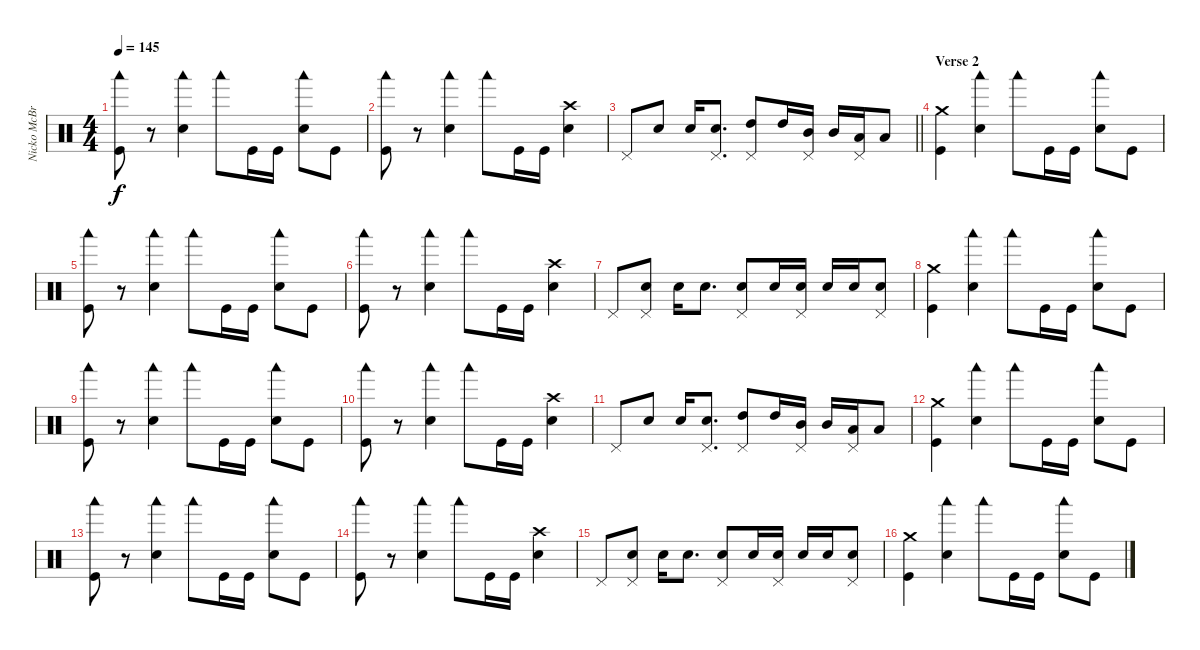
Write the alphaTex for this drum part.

\track ("Nicko McBrain" "Nicko McBr") {instrument percussion}
\staff {score}
\articulation defaults
\ts (4 4)
\tempo 145
\clef neutral
\ks c
("Woodblock low (hit)" "Kick (hit)").8{dy f} r.8 ("Woodblock low (hit)" "Electric Snare (hit)").4 "Woodblock low (hit)".8 "Kick (hit)".16 "Kick (hit)".16 ("Woodblock low (hit)" "Electric Snare (hit)").8 "Kick (hit)".8 |
("Woodblock low (hit)" "Kick (hit)").8 r.8 ("Woodblock low (hit)" "Electric Snare (hit)").4 "Woodblock low (hit)".8 "Kick (hit)".16 "Kick (hit)".16 ("Crash high (hit)" "Electric Snare (hit)").4 |
\barLineRight lightlight "Pedal Hi-Hat (hit)".8 "Electric Snare (hit)".8 "Electric Snare (hit)".16
("Pedal Hi-Hat (hit)" "Electric Snare (hit)").8{d} ("Pedal Hi-Hat (hit)" "High Tom (hit)").8 "High Tom (hit)".16 ("Pedal Hi-Hat (hit)" "Mid Tom (hit)").16 "Mid Tom (hit)".16 ("Pedal Hi-Hat (hit)" "Low Tom (hit)").16 "Low Tom (hit)".8 |
\section ("" "Verse 2")
("Crash medium (hit)" "Kick (hit)").4 ("Woodblock low (hit)" "Electric Snare (hit)").4 "Woodblock low (hit)".8 "Kick (hit)".16 "Kick (hit)".16 ("Woodblock low (hit)" "Electric Snare (hit)").8 "Kick (hit)".8 |
("Woodblock low (hit)" "Kick (hit)").8 r.8 ("Woodblock low (hit)" "Electric Snare (hit)").4 "Woodblock low (hit)".8 "Kick (hit)".16 "Kick (hit)".16 ("Woodblock low (hit)" "Electric Snare (hit)").8 "Kick (hit)".8 |
("Woodblock low (hit)" "Kick (hit)").8 r.8 ("Woodblock low (hit)" "Electric Snare (hit)").4 "Woodblock low (hit)".8 "Kick (hit)".16 "Kick (hit)".16 ("Crash high (hit)" "Electric Snare (hit)").4 |
"Pedal Hi-Hat (hit)".8 ("Pedal Hi-Hat (hit)" "Electric Snare (hit)").8 "Electric Snare (hit)".16 "Electric Snare (hit)".8{d} ("Pedal Hi-Hat (hit)" "Electric Snare (hit)").8 "Electric Snare (hit)".16 ("Pedal Hi-Hat (hit)" "Electric Snare (hit)").16 "Electric Snare (hit)".16 "Electric Snare (hit)".16 ("Pedal Hi-Hat (hit)" "Electric Snare (hit)").8 |
("Crash medium (hit)" "Kick (hit)").4 ("Woodblock low (hit)" "Electric Snare (hit)").4 "Woodblock low (hit)".8 "Kick (hit)".16 "Kick (hit)".16 ("Woodblock low (hit)" "Electric Snare (hit)").8 "Kick (hit)".8 |
("Woodblock low (hit)" "Kick (hit)").8 r.8 ("Woodblock low (hit)" "Electric Snare (hit)").4 "Woodblock low (hit)".8 "Kick (hit)".16 "Kick (hit)".16 ("Woodblock low (hit)" "Electric Snare (hit)").8 "Kick (hit)".8 |
("Woodblock low (hit)" "Kick (hit)").8 r.8 ("Woodblock low (hit)" "Electric Snare (hit)").4 "Woodblock low (hit)".8 "Kick (hit)".16 "Kick (hit)".16 ("Crash high (hit)" "Electric Snare (hit)").4 |
"Pedal Hi-Hat (hit)".8 "Electric Snare (hit)".8 "Electric Snare (hit)".16 ("Pedal Hi-Hat (hit)" "Electric Snare (hit)").8{d} ("Pedal Hi-Hat (hit)" "High Tom (hit)").8 "High Tom (hit)".16 ("Pedal Hi-Hat (hit)" "Mid Tom (hit)").16 "Mid Tom (hit)".16 ("Pedal Hi-Hat (hit)" "Low Tom (hit)").16 "Low Tom (hit)".8 |
("Crash medium (hit)" "Kick (hit)").4 ("Woodblock low (hit)" "Electric Snare (hit)").4 "Woodblock low (hit)".8 "Kick (hit)".16 "Kick (hit)".16 ("Woodblock low (hit)" "Electric Snare (hit)").8 "Kick (hit)".8 |
("Woodblock low (hit)" "Kick (hit)").8 r.8 ("Woodblock low (hit)" "Electric Snare (hit)").4 "Woodblock low (hit)".8 "Kick (hit)".16 "Kick (hit)".16 ("Woodblock low (hit)" "Electric Snare (hit)").8 "Kick (hit)".8 |
("Woodblock low (hit)" "Kick (hit)").8 r.8 ("Woodblock low (hit)" "Electric Snare (hit)").4 "Woodblock low (hit)".8 "Kick (hit)".16 "Kick (hit)".16 ("Crash high (hit)" "Electric Snare (hit)").4 |
"Pedal Hi-Hat (hit)".8 ("Pedal Hi-Hat (hit)" "Electric Snare (hit)").8 "Electric Snare (hit)".16 "Electric Snare (hit)".8{d} ("Pedal Hi-Hat (hit)" "Electric Snare (hit)").8 "Electric Snare (hit)".16 ("Pedal Hi-Hat (hit)" "Electric Snare (hit)").16 "Electric Snare (hit)".16 "Electric Snare (hit)".16 ("Pedal Hi-Hat (hit)" "Electric Snare (hit)").8 |
("Crash medium (hit)" "Kick (hit)").4 ("Woodblock low (hit)" "Electric Snare (hit)").4 "Woodblock low (hit)".8 "Kick (hit)".16 "Kick (hit)".16 ("Woodblock low (hit)" "Electric Snare (hit)").8 "Kick (hit)".8
